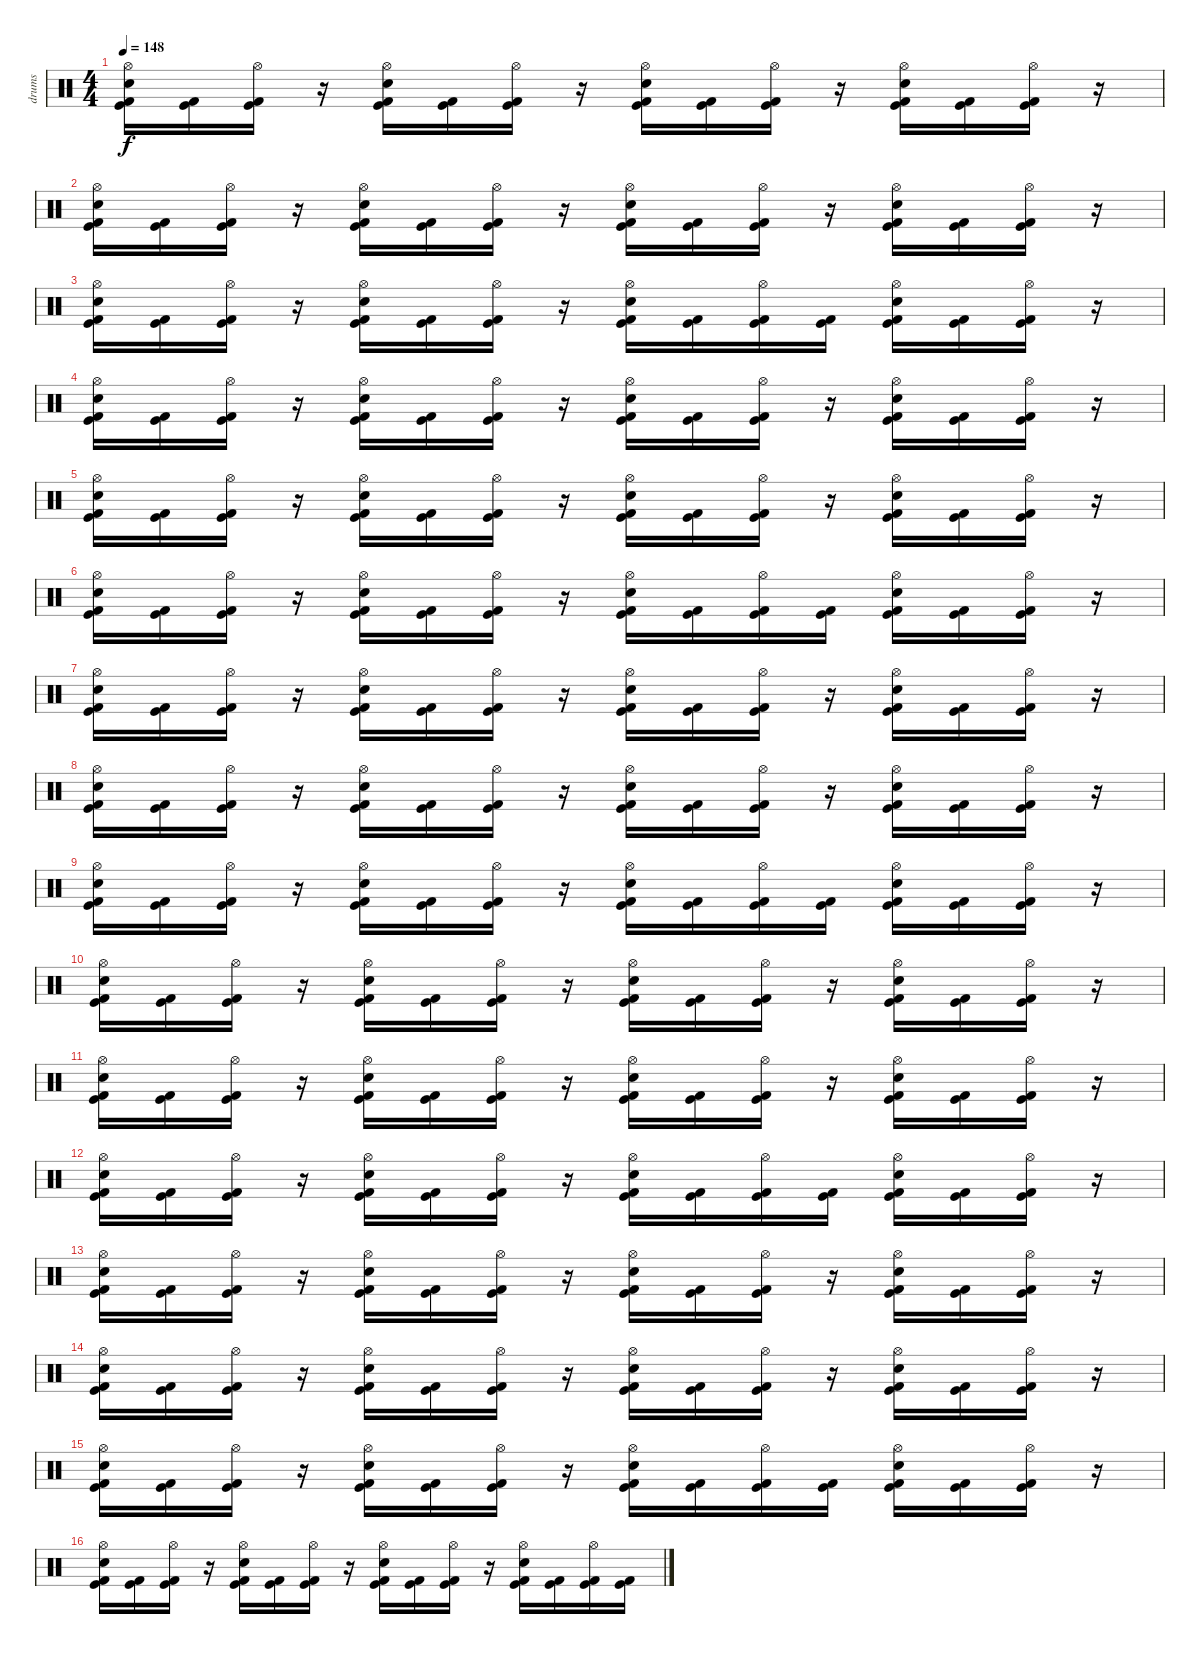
\track ("drums" "drums") {instrument percussion}
\staff {score}
\articulation defaults
\ts (4 4)
\tempo 148
\clef neutral
\ks c
("Kick (hit)" "Kick (hit) 2" "Snare (hit) 2" "Hi-Hat (open)").16{dy f} ("Kick (hit)" "Kick (hit) 2").16 ("Kick (hit)" "Kick (hit) 2" "Hi-Hat (open)").16 r.16 ("Kick (hit)" "Kick (hit) 2" "Snare (hit) 2" "Hi-Hat (open)").16 ("Kick (hit)" "Kick (hit) 2").16 ("Kick (hit)" "Kick (hit) 2" "Hi-Hat (open)").16 r.16 ("Kick (hit)" "Kick (hit) 2" "Snare (hit) 2" "Hi-Hat (open)").16 ("Kick (hit)" "Kick (hit) 2").16 ("Kick (hit)" "Kick (hit) 2" "Hi-Hat (open)").16 r.16 ("Kick (hit)" "Kick (hit) 2" "Snare (hit) 2" "Hi-Hat (open)").16 ("Kick (hit)" "Kick (hit) 2").16 ("Kick (hit)" "Kick (hit) 2" "Hi-Hat (open)").16 r.16 |
("Kick (hit)" "Kick (hit) 2" "Snare (hit) 2" "Hi-Hat (open)").16 ("Kick (hit)" "Kick (hit) 2").16 ("Kick (hit)" "Kick (hit) 2" "Hi-Hat (open)").16 r.16 ("Kick (hit)" "Kick (hit) 2" "Snare (hit) 2" "Hi-Hat (open)").16 ("Kick (hit)" "Kick (hit) 2").16 ("Kick (hit)" "Kick (hit) 2" "Hi-Hat (open)").16 r.16 ("Kick (hit)" "Kick (hit) 2" "Snare (hit) 2" "Hi-Hat (open)").16 ("Kick (hit)" "Kick (hit) 2").16 ("Kick (hit)" "Kick (hit) 2" "Hi-Hat (open)").16 r.16 ("Kick (hit)" "Kick (hit) 2" "Snare (hit) 2" "Hi-Hat (open)").16 ("Kick (hit)" "Kick (hit) 2").16 ("Kick (hit)" "Kick (hit) 2" "Hi-Hat (open)").16 r.16 |
("Kick (hit)" "Kick (hit) 2" "Snare (hit) 2" "Hi-Hat (open)").16 ("Kick (hit)" "Kick (hit) 2").16 ("Kick (hit)" "Kick (hit) 2" "Hi-Hat (open)").16 r.16 ("Kick (hit)" "Kick (hit) 2" "Snare (hit) 2" "Hi-Hat (open)").16 ("Kick (hit)" "Kick (hit) 2").16 ("Kick (hit)" "Kick (hit) 2" "Hi-Hat (open)").16 r.16 ("Kick (hit)" "Kick (hit) 2" "Snare (hit) 2" "Hi-Hat (open)").16 ("Kick (hit)" "Kick (hit) 2").16 ("Kick (hit)" "Kick (hit) 2" "Hi-Hat (open)").16 ("Kick (hit)" "Kick (hit) 2").16 ("Kick (hit)" "Kick (hit) 2" "Snare (hit) 2" "Hi-Hat (open)").16 ("Kick (hit)" "Kick (hit) 2").16 ("Kick (hit)" "Kick (hit) 2" "Hi-Hat (open)").16 r.16 |
("Kick (hit)" "Kick (hit) 2" "Snare (hit) 2" "Hi-Hat (open)").16 ("Kick (hit)" "Kick (hit) 2").16 ("Kick (hit)" "Kick (hit) 2" "Hi-Hat (open)").16 r.16 ("Kick (hit)" "Kick (hit) 2" "Snare (hit) 2" "Hi-Hat (open)").16 ("Kick (hit)" "Kick (hit) 2").16 ("Kick (hit)" "Kick (hit) 2" "Hi-Hat (open)").16 r.16 ("Kick (hit)" "Kick (hit) 2" "Snare (hit) 2" "Hi-Hat (open)").16 ("Kick (hit)" "Kick (hit) 2").16 ("Kick (hit)" "Kick (hit) 2" "Hi-Hat (open)").16 r.16 ("Kick (hit)" "Kick (hit) 2" "Snare (hit) 2" "Hi-Hat (open)").16 ("Kick (hit)" "Kick (hit) 2").16 ("Kick (hit)" "Kick (hit) 2" "Hi-Hat (open)").16 r.16 |
("Kick (hit)" "Kick (hit) 2" "Snare (hit) 2" "Hi-Hat (open)").16 ("Kick (hit)" "Kick (hit) 2").16 ("Kick (hit)" "Kick (hit) 2" "Hi-Hat (open)").16 r.16 ("Kick (hit)" "Kick (hit) 2" "Snare (hit) 2" "Hi-Hat (open)").16 ("Kick (hit)" "Kick (hit) 2").16 ("Kick (hit)" "Kick (hit) 2" "Hi-Hat (open)").16 r.16 ("Kick (hit)" "Kick (hit) 2" "Snare (hit) 2" "Hi-Hat (open)").16 ("Kick (hit)" "Kick (hit) 2").16 ("Kick (hit)" "Kick (hit) 2" "Hi-Hat (open)").16 r.16 ("Kick (hit)" "Kick (hit) 2" "Snare (hit) 2" "Hi-Hat (open)").16 ("Kick (hit)" "Kick (hit) 2").16 ("Kick (hit)" "Kick (hit) 2" "Hi-Hat (open)").16 r.16 |
("Kick (hit)" "Kick (hit) 2" "Snare (hit) 2" "Hi-Hat (open)").16 ("Kick (hit)" "Kick (hit) 2").16 ("Kick (hit)" "Kick (hit) 2" "Hi-Hat (open)").16 r.16 ("Kick (hit)" "Kick (hit) 2" "Snare (hit) 2" "Hi-Hat (open)").16 ("Kick (hit)" "Kick (hit) 2").16 ("Kick (hit)" "Kick (hit) 2" "Hi-Hat (open)").16 r.16 ("Kick (hit)" "Kick (hit) 2" "Snare (hit) 2" "Hi-Hat (open)").16 ("Kick (hit)" "Kick (hit) 2").16 ("Kick (hit)" "Kick (hit) 2" "Hi-Hat (open)").16 ("Kick (hit)" "Kick (hit) 2").16 ("Kick (hit)" "Kick (hit) 2" "Snare (hit) 2" "Hi-Hat (open)").16 ("Kick (hit)" "Kick (hit) 2").16 ("Kick (hit)" "Kick (hit) 2" "Hi-Hat (open)").16 r.16 |
("Kick (hit)" "Kick (hit) 2" "Snare (hit) 2" "Hi-Hat (open)").16 ("Kick (hit)" "Kick (hit) 2").16 ("Kick (hit)" "Kick (hit) 2" "Hi-Hat (open)").16 r.16 ("Kick (hit)" "Kick (hit) 2" "Snare (hit) 2" "Hi-Hat (open)").16 ("Kick (hit)" "Kick (hit) 2").16 ("Kick (hit)" "Kick (hit) 2" "Hi-Hat (open)").16 r.16 ("Kick (hit)" "Kick (hit) 2" "Snare (hit) 2" "Hi-Hat (open)").16 ("Kick (hit)" "Kick (hit) 2").16 ("Kick (hit)" "Kick (hit) 2" "Hi-Hat (open)").16 r.16 ("Kick (hit)" "Kick (hit) 2" "Snare (hit) 2" "Hi-Hat (open)").16 ("Kick (hit)" "Kick (hit) 2").16 ("Kick (hit)" "Kick (hit) 2" "Hi-Hat (open)").16 r.16 |
("Kick (hit)" "Kick (hit) 2" "Snare (hit) 2" "Hi-Hat (open)").16 ("Kick (hit)" "Kick (hit) 2").16 ("Kick (hit)" "Kick (hit) 2" "Hi-Hat (open)").16 r.16 ("Kick (hit)" "Kick (hit) 2" "Snare (hit) 2" "Hi-Hat (open)").16 ("Kick (hit)" "Kick (hit) 2").16 ("Kick (hit)" "Kick (hit) 2" "Hi-Hat (open)").16 r.16 ("Kick (hit)" "Kick (hit) 2" "Snare (hit) 2" "Hi-Hat (open)").16 ("Kick (hit)" "Kick (hit) 2").16 ("Kick (hit)" "Kick (hit) 2" "Hi-Hat (open)").16 r.16 ("Kick (hit)" "Kick (hit) 2" "Snare (hit) 2" "Hi-Hat (open)").16 ("Kick (hit)" "Kick (hit) 2").16 ("Kick (hit)" "Kick (hit) 2" "Hi-Hat (open)").16 r.16 |
("Kick (hit)" "Kick (hit) 2" "Snare (hit) 2" "Hi-Hat (open)").16 ("Kick (hit)" "Kick (hit) 2").16 ("Kick (hit)" "Kick (hit) 2" "Hi-Hat (open)").16 r.16 ("Kick (hit)" "Kick (hit) 2" "Snare (hit) 2" "Hi-Hat (open)").16 ("Kick (hit)" "Kick (hit) 2").16 ("Kick (hit)" "Kick (hit) 2" "Hi-Hat (open)").16 r.16 ("Kick (hit)" "Kick (hit) 2" "Snare (hit) 2" "Hi-Hat (open)").16 ("Kick (hit)" "Kick (hit) 2").16 ("Kick (hit)" "Kick (hit) 2" "Hi-Hat (open)").16 ("Kick (hit)" "Kick (hit) 2").16 ("Kick (hit)" "Kick (hit) 2" "Snare (hit) 2" "Hi-Hat (open)").16 ("Kick (hit)" "Kick (hit) 2").16 ("Kick (hit)" "Kick (hit) 2" "Hi-Hat (open)").16 r.16 |
("Kick (hit)" "Kick (hit) 2" "Snare (hit) 2" "Hi-Hat (open)").16 ("Kick (hit)" "Kick (hit) 2").16 ("Kick (hit)" "Kick (hit) 2" "Hi-Hat (open)").16 r.16 ("Kick (hit)" "Kick (hit) 2" "Snare (hit) 2" "Hi-Hat (open)").16 ("Kick (hit)" "Kick (hit) 2").16 ("Kick (hit)" "Kick (hit) 2" "Hi-Hat (open)").16 r.16 ("Kick (hit)" "Kick (hit) 2" "Snare (hit) 2" "Hi-Hat (open)").16 ("Kick (hit)" "Kick (hit) 2").16 ("Kick (hit)" "Kick (hit) 2" "Hi-Hat (open)").16 r.16 ("Kick (hit)" "Kick (hit) 2" "Snare (hit) 2" "Hi-Hat (open)").16 ("Kick (hit)" "Kick (hit) 2").16 ("Kick (hit)" "Kick (hit) 2" "Hi-Hat (open)").16 r.16 |
("Kick (hit)" "Kick (hit) 2" "Snare (hit) 2" "Hi-Hat (open)").16 ("Kick (hit)" "Kick (hit) 2").16 ("Kick (hit)" "Kick (hit) 2" "Hi-Hat (open)").16 r.16 ("Kick (hit)" "Kick (hit) 2" "Snare (hit) 2" "Hi-Hat (open)").16 ("Kick (hit)" "Kick (hit) 2").16 ("Kick (hit)" "Kick (hit) 2" "Hi-Hat (open)").16 r.16 ("Kick (hit)" "Kick (hit) 2" "Snare (hit) 2" "Hi-Hat (open)").16 ("Kick (hit)" "Kick (hit) 2").16 ("Kick (hit)" "Kick (hit) 2" "Hi-Hat (open)").16 r.16 ("Kick (hit)" "Kick (hit) 2" "Snare (hit) 2" "Hi-Hat (open)").16 ("Kick (hit)" "Kick (hit) 2").16 ("Kick (hit)" "Kick (hit) 2" "Hi-Hat (open)").16 r.16 |
("Kick (hit)" "Kick (hit) 2" "Snare (hit) 2" "Hi-Hat (open)").16 ("Kick (hit)" "Kick (hit) 2").16 ("Kick (hit)" "Kick (hit) 2" "Hi-Hat (open)").16 r.16 ("Kick (hit)" "Kick (hit) 2" "Snare (hit) 2" "Hi-Hat (open)").16 ("Kick (hit)" "Kick (hit) 2").16 ("Kick (hit)" "Kick (hit) 2" "Hi-Hat (open)").16 r.16 ("Kick (hit)" "Kick (hit) 2" "Snare (hit) 2" "Hi-Hat (open)").16 ("Kick (hit)" "Kick (hit) 2").16 ("Kick (hit)" "Kick (hit) 2" "Hi-Hat (open)").16 ("Kick (hit)" "Kick (hit) 2").16 ("Kick (hit)" "Kick (hit) 2" "Snare (hit) 2" "Hi-Hat (open)").16 ("Kick (hit)" "Kick (hit) 2").16 ("Kick (hit)" "Kick (hit) 2" "Hi-Hat (open)").16 r.16 |
("Kick (hit)" "Kick (hit) 2" "Snare (hit) 2" "Hi-Hat (open)").16 ("Kick (hit)" "Kick (hit) 2").16 ("Kick (hit)" "Kick (hit) 2" "Hi-Hat (open)").16 r.16 ("Kick (hit)" "Kick (hit) 2" "Snare (hit) 2" "Hi-Hat (open)").16 ("Kick (hit)" "Kick (hit) 2").16 ("Kick (hit)" "Kick (hit) 2" "Hi-Hat (open)").16 r.16 ("Kick (hit)" "Kick (hit) 2" "Snare (hit) 2" "Hi-Hat (open)").16 ("Kick (hit)" "Kick (hit) 2").16 ("Kick (hit)" "Kick (hit) 2" "Hi-Hat (open)").16 r.16 ("Kick (hit)" "Kick (hit) 2" "Snare (hit) 2" "Hi-Hat (open)").16 ("Kick (hit)" "Kick (hit) 2").16 ("Kick (hit)" "Kick (hit) 2" "Hi-Hat (open)").16 r.16 |
("Kick (hit)" "Kick (hit) 2" "Snare (hit) 2" "Hi-Hat (open)").16 ("Kick (hit)" "Kick (hit) 2").16 ("Kick (hit)" "Kick (hit) 2" "Hi-Hat (open)").16 r.16 ("Kick (hit)" "Kick (hit) 2" "Snare (hit) 2" "Hi-Hat (open)").16 ("Kick (hit)" "Kick (hit) 2").16 ("Kick (hit)" "Kick (hit) 2" "Hi-Hat (open)").16 r.16 ("Kick (hit)" "Kick (hit) 2" "Snare (hit) 2" "Hi-Hat (open)").16 ("Kick (hit)" "Kick (hit) 2").16 ("Kick (hit)" "Kick (hit) 2" "Hi-Hat (open)").16 r.16 ("Kick (hit)" "Kick (hit) 2" "Snare (hit) 2" "Hi-Hat (open)").16 ("Kick (hit)" "Kick (hit) 2").16 ("Kick (hit)" "Kick (hit) 2" "Hi-Hat (open)").16 r.16 |
("Kick (hit)" "Kick (hit) 2" "Snare (hit) 2" "Hi-Hat (open)").16 ("Kick (hit)" "Kick (hit) 2").16 ("Kick (hit)" "Kick (hit) 2" "Hi-Hat (open)").16 r.16 ("Kick (hit)" "Kick (hit) 2" "Snare (hit) 2" "Hi-Hat (open)").16 ("Kick (hit)" "Kick (hit) 2").16 ("Kick (hit)" "Kick (hit) 2" "Hi-Hat (open)").16 r.16 ("Kick (hit)" "Kick (hit) 2" "Snare (hit) 2" "Hi-Hat (open)").16 ("Kick (hit)" "Kick (hit) 2").16 ("Kick (hit)" "Kick (hit) 2" "Hi-Hat (open)").16 ("Kick (hit)" "Kick (hit) 2").16 ("Kick (hit)" "Kick (hit) 2" "Snare (hit) 2" "Hi-Hat (open)").16 ("Kick (hit)" "Kick (hit) 2").16 ("Kick (hit)" "Kick (hit) 2" "Hi-Hat (open)").16 r.16 |
("Kick (hit)" "Kick (hit) 2" "Snare (hit) 2" "Hi-Hat (open)").16 ("Kick (hit)" "Kick (hit) 2").16 ("Kick (hit)" "Kick (hit) 2" "Hi-Hat (open)").16 r.16 ("Kick (hit)" "Kick (hit) 2" "Snare (hit) 2" "Hi-Hat (open)").16 ("Kick (hit)" "Kick (hit) 2").16 ("Kick (hit)" "Kick (hit) 2" "Hi-Hat (open)").16 r.16 ("Kick (hit)" "Kick (hit) 2" "Snare (hit) 2" "Hi-Hat (open)").16 ("Kick (hit)" "Kick (hit) 2").16 ("Kick (hit)" "Kick (hit) 2" "Hi-Hat (open)").16 r.16 ("Kick (hit)" "Kick (hit) 2" "Snare (hit) 2" "Hi-Hat (open)").16 ("Kick (hit)" "Kick (hit) 2").16 ("Kick (hit)" "Kick (hit) 2" "Hi-Hat (open)").16 ("Kick (hit)" "Kick (hit) 2").16
